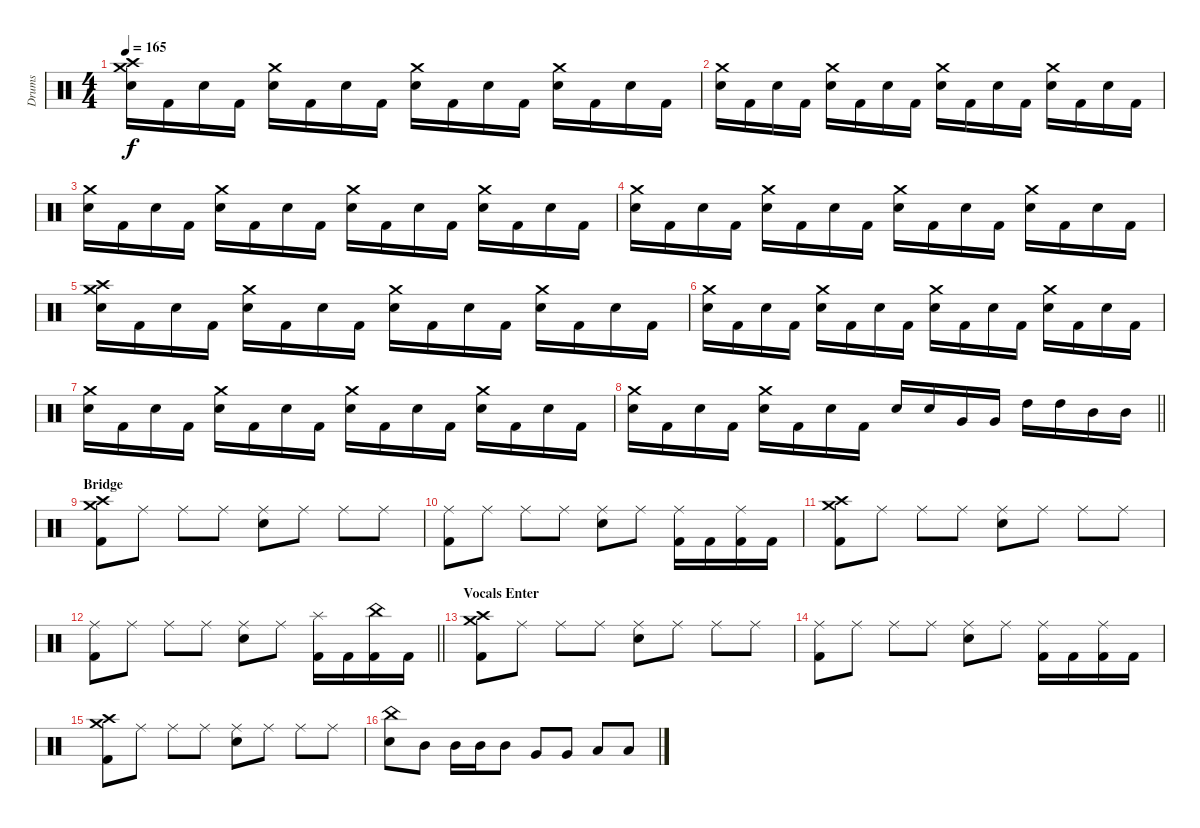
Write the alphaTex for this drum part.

\track ("Drums" "Drums") {instrument percussion}
\staff {score}
\articulation defaults
\ts (4 4)
\tempo 165
\clef neutral
\ks c
("Crash medium (hit)" "Crash high (hit)" "Electric Snare (hit)").16{dy f} "Kick (hit) 2".16 "Electric Snare (hit)".16 "Kick (hit) 2".16 ("Crash medium (hit)" "Electric Snare (hit)").16 "Kick (hit) 2".16 "Electric Snare (hit)".16 "Kick (hit) 2".16 ("Crash medium (hit)" "Electric Snare (hit)").16 "Kick (hit) 2".16 "Electric Snare (hit)".16 "Kick (hit) 2".16 ("Crash medium (hit)" "Electric Snare (hit)").16 "Kick (hit) 2".16 "Electric Snare (hit)".16 "Kick (hit) 2".16 |
("Crash medium (hit)" "Electric Snare (hit)").16 "Kick (hit) 2".16 "Electric Snare (hit)".16 "Kick (hit) 2".16 ("Crash medium (hit)" "Electric Snare (hit)").16 "Kick (hit) 2".16 "Electric Snare (hit)".16 "Kick (hit) 2".16 ("Crash medium (hit)" "Electric Snare (hit)").16 "Kick (hit) 2".16 "Electric Snare (hit)".16 "Kick (hit) 2".16 ("Crash medium (hit)" "Electric Snare (hit)").16 "Kick (hit) 2".16 "Electric Snare (hit)".16 "Kick (hit) 2".16 |
("Crash medium (hit)" "Electric Snare (hit)").16 "Kick (hit) 2".16 "Electric Snare (hit)".16 "Kick (hit) 2".16 ("Crash medium (hit)" "Electric Snare (hit)").16 "Kick (hit) 2".16 "Electric Snare (hit)".16 "Kick (hit) 2".16 ("Crash medium (hit)" "Electric Snare (hit)").16 "Kick (hit) 2".16 "Electric Snare (hit)".16 "Kick (hit) 2".16 ("Crash medium (hit)" "Electric Snare (hit)").16 "Kick (hit) 2".16 "Electric Snare (hit)".16 "Kick (hit) 2".16 |
("Crash medium (hit)" "Electric Snare (hit)").16 "Kick (hit) 2".16 "Electric Snare (hit)".16 "Kick (hit) 2".16 ("Crash medium (hit)" "Electric Snare (hit)").16 "Kick (hit) 2".16 "Electric Snare (hit)".16 "Kick (hit) 2".16 ("Crash medium (hit)" "Electric Snare (hit)").16 "Kick (hit) 2".16 "Electric Snare (hit)".16 "Kick (hit) 2".16 ("Crash medium (hit)" "Electric Snare (hit)").16 "Kick (hit) 2".16 "Electric Snare (hit)".16 "Kick (hit) 2".16 |
("Crash medium (hit)" "Crash high (hit)" "Electric Snare (hit)").16 "Kick (hit) 2".16 "Electric Snare (hit)".16 "Kick (hit) 2".16 ("Crash medium (hit)" "Electric Snare (hit)").16 "Kick (hit) 2".16 "Electric Snare (hit)".16 "Kick (hit) 2".16 ("Crash medium (hit)" "Electric Snare (hit)").16 "Kick (hit) 2".16 "Electric Snare (hit)".16 "Kick (hit) 2".16 ("Crash medium (hit)" "Electric Snare (hit)").16 "Kick (hit) 2".16 "Electric Snare (hit)".16 "Kick (hit) 2".16 |
("Crash medium (hit)" "Electric Snare (hit)").16 "Kick (hit) 2".16 "Electric Snare (hit)".16 "Kick (hit) 2".16 ("Crash medium (hit)" "Electric Snare (hit)").16 "Kick (hit) 2".16 "Electric Snare (hit)".16 "Kick (hit) 2".16 ("Crash medium (hit)" "Electric Snare (hit)").16 "Kick (hit) 2".16 "Electric Snare (hit)".16 "Kick (hit) 2".16 ("Crash medium (hit)" "Electric Snare (hit)").16 "Kick (hit) 2".16 "Electric Snare (hit)".16 "Kick (hit) 2".16 |
("Crash medium (hit)" "Electric Snare (hit)").16 "Kick (hit) 2".16 "Electric Snare (hit)".16 "Kick (hit) 2".16 ("Crash medium (hit)" "Electric Snare (hit)").16 "Kick (hit) 2".16 "Electric Snare (hit)".16 "Kick (hit) 2".16 ("Crash medium (hit)" "Electric Snare (hit)").16 "Kick (hit) 2".16 "Electric Snare (hit)".16 "Kick (hit) 2".16 ("Crash medium (hit)" "Electric Snare (hit)").16 "Kick (hit) 2".16 "Electric Snare (hit)".16 "Kick (hit) 2".16 |
\barLineRight lightlight
("Crash medium (hit)" "Electric Snare (hit)").16 "Kick (hit) 2".16 "Electric Snare (hit)".16 "Kick (hit) 2".16 ("Crash medium (hit)" "Electric Snare (hit)").16 "Kick (hit) 2".16 "Electric Snare (hit)".16 "Kick (hit) 2".16 "Electric Snare (hit)".16 "Electric Snare (hit)".16 "Very Low Tom (hit)".16 "Very Low Tom (hit)".16 "High Tom (hit)".16 "High Tom (hit)".16 "Mid Tom (hit)".16 "Mid Tom (hit)".16 |
\section ("" "Bridge")
("Crash medium (hit)" "Crash high (hit)" "Kick (hit) 2").8 "Ride (middle)".8 "Ride (middle)".8 "Ride (middle)".8 ("Ride (middle)" "Electric Snare (hit)").8 "Ride (middle)".8 "Ride (middle)".8 "Ride (middle)".8 |
("Ride (middle)" "Kick (hit) 2").8 "Ride (middle)".8 "Ride (middle)".8 "Ride (middle)".8 ("Ride (middle)" "Electric Snare (hit)").8 "Ride (middle)".8 ("Ride (middle)" "Kick (hit) 2").16 "Kick (hit) 2".16 ("Ride (middle)" "Kick (hit) 2").16 "Kick (hit) 2".16 |
("Crash medium (hit)" "Crash high (hit)" "Kick (hit) 2").8 "Ride (middle)".8 "Ride (middle)".8 "Ride (middle)".8 ("Ride (middle)" "Electric Snare (hit)").8 "Ride (middle)".8 "Ride (middle)".8 "Ride (middle)".8 |
\barLineRight lightlight
("Ride (middle)" "Kick (hit) 2").8 "Ride (middle)".8 "Ride (middle)".8 "Ride (middle)".8 ("Ride (middle)" "Electric Snare (hit)").8 "Ride (middle)".8 ("Splash (hit)" "Kick (hit) 2").16 "Kick (hit) 2".16 ("China (hit)" "Kick (hit) 2").16 "Kick (hit) 2".16 |
\section ("" "Vocals Enter")
("Crash medium (hit)" "Crash high (hit)" "Kick (hit) 2").8 "Ride (middle)".8 "Ride (middle)".8 "Ride (middle)".8 ("Ride (middle)" "Electric Snare (hit)").8 "Ride (middle)".8 "Ride (middle)".8 "Ride (middle)".8 |
("Ride (middle)" "Kick (hit) 2").8 "Ride (middle)".8 "Ride (middle)".8 "Ride (middle)".8 ("Ride (middle)" "Electric Snare (hit)").8 "Ride (middle)".8 ("Ride (middle)" "Kick (hit) 2").16 "Kick (hit) 2".16 ("Ride (middle)" "Kick (hit) 2").16 "Kick (hit) 2".16 |
("Crash medium (hit)" "Crash high (hit)" "Kick (hit) 2").8 "Ride (middle)".8 "Ride (middle)".8 "Ride (middle)".8 ("Ride (middle)" "Electric Snare (hit)").8 "Ride (middle)".8 "Ride (middle)".8 "Ride (middle)".8 |
("China (hit)" "Electric Snare (hit)").8 "Mid Tom (hit)".8 "Mid Tom (hit)".16 "Mid Tom (hit)".16 "Mid Tom (hit)".8 "Very Low Tom (hit)".8 "Very Low Tom (hit)".8 "Low Tom (hit)".8 "Low Tom (hit)".8
